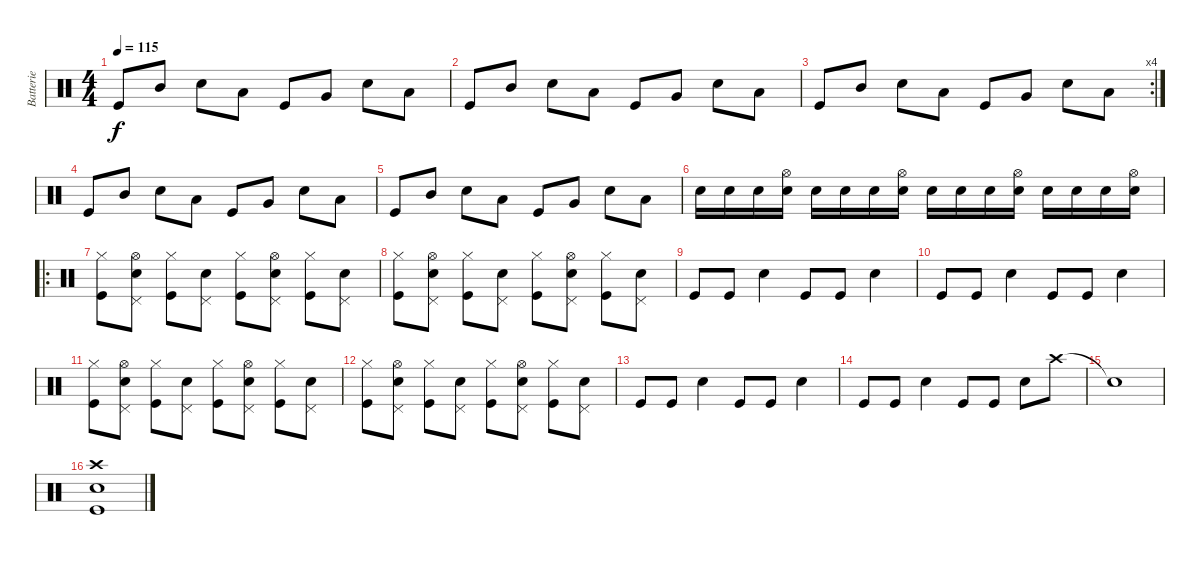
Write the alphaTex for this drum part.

\track ("Batterie" "Batterie") {instrument percussion}
\staff {score}
\articulation defaults
\ts (4 4)
\tempo 115
\clef neutral
\ks c "Kick (hit)".8{dy f} "Mid Tom (hit)".8 "Snare (hit) 2".8 "Low Tom (hit)".8 "Kick (hit)".8 "Very Low Tom (hit)".8 "Snare (hit) 2".8 "Low Floor Tom (hit)".8
|
"Kick (hit)".8 "Mid Tom (hit)".8 "Snare (hit) 2".8 "Low Tom (hit)".8 "Kick (hit)".8 "Very Low Tom (hit)".8 "Snare (hit) 2".8 "Low Floor Tom (hit)".8 |
\rc 4 "Kick (hit)".8 "Mid Tom (hit)".8 "Snare (hit) 2".8 "Low Tom (hit)".8 "Kick (hit)".8 "Very Low Tom (hit)".8 "Snare (hit) 2".8 "Low Floor Tom (hit)".8
|
"Kick (hit)".8 "Mid Tom (hit)".8 "Snare (hit) 2".8 "Low Tom (hit)".8 "Kick (hit)".8 "Very Low Tom (hit)".8 "Snare (hit) 2".8 "Low Floor Tom (hit)".8 |
"Kick (hit)".8 "Mid Tom (hit)".8 "Snare (hit) 2".8 "Low Tom (hit)".8 "Kick (hit)".8 "Very Low Tom (hit)".8 "Snare (hit) 2".8 "Low Floor Tom (hit)".8 |
"Snare (hit) 2".16 "Snare (hit) 2".16 "Snare (hit) 2".16 ("Snare (hit) 2" "Hi-Hat (open)").16 "Snare (hit) 2".16 "Snare (hit) 2".16 "Snare (hit) 2".16 ("Snare (hit) 2" "Hi-Hat (open)").16 "Snare (hit) 2".16 "Snare (hit) 2".16 "Snare (hit) 2".16 ("Snare (hit) 2" "Hi-Hat (open)").16 "Snare (hit) 2".16 "Snare (hit) 2".16 "Snare (hit) 2".16 ("Snare (hit) 2" "Hi-Hat (open)").16 |
\ro
("Hi-Hat (closed)" "Kick (hit)").8 ("Hi-Hat (open)" "Pedal Hi-Hat (hit)" "Snare (hit) 2").8 ("Hi-Hat (closed)" "Kick (hit)").8 ("Pedal Hi-Hat (hit)" "Snare (hit) 2").8 ("Hi-Hat (closed)" "Kick (hit)").8 ("Hi-Hat (open)" "Pedal Hi-Hat (hit)" "Snare (hit) 2").8 ("Hi-Hat (closed)" "Kick (hit)").8 ("Pedal Hi-Hat (hit)" "Snare (hit) 2").8 |
("Hi-Hat (closed)" "Kick (hit)").8 ("Hi-Hat (open)" "Pedal Hi-Hat (hit)" "Snare (hit) 2").8 ("Hi-Hat (closed)" "Kick (hit)").8 ("Pedal Hi-Hat (hit)" "Snare (hit) 2").8 ("Hi-Hat (closed)" "Kick (hit)").8 ("Hi-Hat (open)" "Pedal Hi-Hat (hit)" "Snare (hit) 2").8 ("Hi-Hat (closed)" "Kick (hit)").8 ("Pedal Hi-Hat (hit)" "Snare (hit) 2").8 |
"Kick (hit)".8 "Kick (hit)".8 "Snare (hit) 2".4 "Kick (hit)".8 "Kick (hit)".8 "Snare (hit) 2".4 |
"Kick (hit)".8 "Kick (hit)".8 "Snare (hit) 2".4 "Kick (hit)".8 "Kick (hit)".8 "Snare (hit) 2".4 |
("Hi-Hat (closed)" "Kick (hit)").8 ("Hi-Hat (open)" "Pedal Hi-Hat (hit)" "Snare (hit) 2").8 ("Hi-Hat (closed)" "Kick (hit)").8 ("Pedal Hi-Hat (hit)" "Snare (hit) 2").8 ("Hi-Hat (closed)" "Kick (hit)").8 ("Hi-Hat (open)" "Pedal Hi-Hat (hit)" "Snare (hit) 2").8 ("Hi-Hat (closed)" "Kick (hit)").8 ("Pedal Hi-Hat (hit)" "Snare (hit) 2").8 |
("Hi-Hat (closed)" "Kick (hit)").8 ("Hi-Hat (open)" "Pedal Hi-Hat (hit)" "Snare (hit) 2").8 ("Hi-Hat (closed)" "Kick (hit)").8 ("Pedal Hi-Hat (hit)" "Snare (hit) 2").8 ("Hi-Hat (closed)" "Kick (hit)").8 ("Hi-Hat (open)" "Pedal Hi-Hat (hit)" "Snare (hit) 2").8 ("Hi-Hat (closed)" "Kick (hit)").8 ("Pedal Hi-Hat (hit)" "Snare (hit) 2").8 |
"Kick (hit)".8 "Kick (hit)".8 "Snare (hit) 2".4 "Kick (hit)".8 "Kick (hit)".8 "Snare (hit) 2".4 |
"Kick (hit)".8 "Kick (hit)".8 "Snare (hit) 2".4 "Kick (hit)".8 "Kick (hit)".8 "Snare (hit) 2".8 "Crash high (hit)".8 |
"Snare (hit)"{t}.1 |
("Snare (hit) 2" "Crash high (hit)" "Kick (hit)").1
